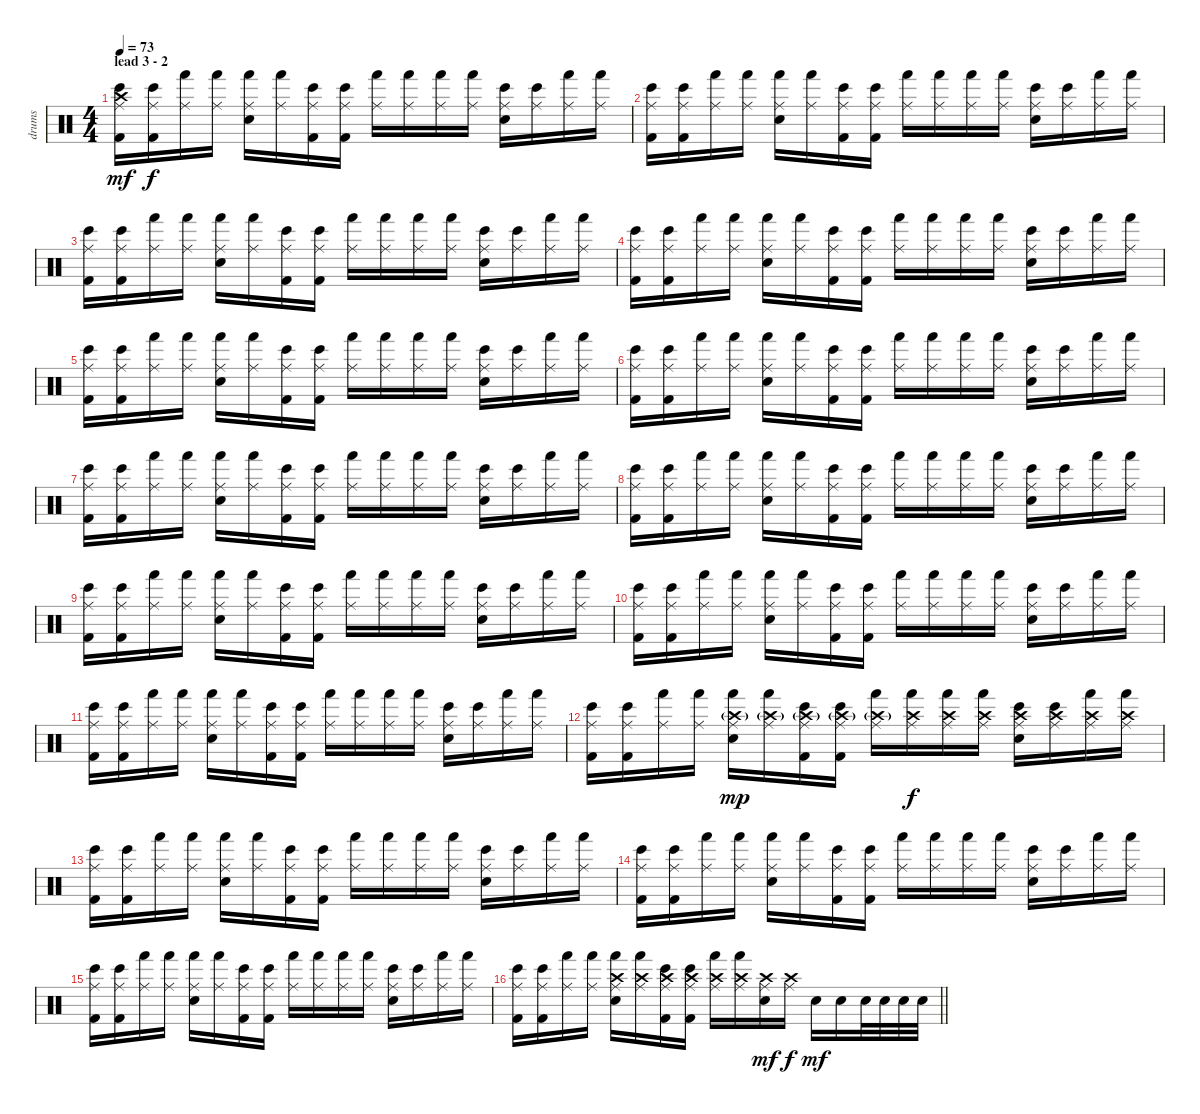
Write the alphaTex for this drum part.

\track ("drums" "drums") {instrument percussion}
\staff {score}
\articulation defaults
\ts (4 4)
\section ("" "lead 3 - 2")
\tempo 73
\clef neutral
\ks c
("Kick (hit) 2" "Bongo High (hit)" "Ride (middle)" "Crash high (hit)").16{dy mf} ("Kick (hit) 2" "Bongo High (hit)" "Ride (middle)").16{dy f} ("Hand (hit)" "Ride (middle)").16 ("Hand (hit)" "Ride (middle)").16 ("Electric Snare (hit)" "Hand (hit)" "Ride (middle)").16 ("Hand (hit)" "Ride (middle)").16 ("Kick (hit) 2" "Bongo High (hit)" "Ride (middle)").16 ("Kick (hit) 2" "Bongo High (hit)" "Ride (middle)").16 ("Hand (hit)" "Ride (middle)").16 ("Hand (hit)" "Ride (middle)").16 ("Hand (hit)" "Ride (middle)").16 ("Hand (hit)" "Ride (middle)").16 ("Electric Snare (hit)" "Bongo High (hit)" "Ride (middle)").16 ("Bongo High (hit)" "Ride (middle)").16 ("Hand (hit)" "Ride (middle)").16 ("Hand (hit)" "Ride (middle)").16 |
("Kick (hit) 2" "Bongo High (hit)" "Ride (middle)").16 ("Kick (hit) 2" "Bongo High (hit)" "Ride (middle)").16 ("Hand (hit)" "Ride (middle)").16 ("Hand (hit)" "Ride (middle)").16 ("Electric Snare (hit)" "Hand (hit)" "Ride (middle)").16 ("Hand (hit)" "Ride (middle)").16 ("Kick (hit) 2" "Bongo High (hit)" "Ride (middle)").16 ("Kick (hit) 2" "Bongo High (hit)" "Ride (middle)").16 ("Hand (hit)" "Ride (middle)").16 ("Hand (hit)" "Ride (middle)").16 ("Hand (hit)" "Ride (middle)").16 ("Hand (hit)" "Ride (middle)").16 ("Electric Snare (hit)" "Bongo High (hit)" "Ride (middle)").16 ("Bongo High (hit)" "Ride (middle)").16 ("Hand (hit)" "Ride (middle)").16 ("Hand (hit)" "Ride (middle)").16 |
("Kick (hit) 2" "Bongo High (hit)" "Ride (middle)").16 ("Kick (hit) 2" "Bongo High (hit)" "Ride (middle)").16 ("Hand (hit)" "Ride (middle)").16 ("Hand (hit)" "Ride (middle)").16 ("Electric Snare (hit)" "Hand (hit)" "Ride (middle)").16 ("Hand (hit)" "Ride (middle)").16 ("Kick (hit) 2" "Bongo High (hit)" "Ride (middle)").16 ("Kick (hit) 2" "Bongo High (hit)" "Ride (middle)").16 ("Hand (hit)" "Ride (middle)").16 ("Hand (hit)" "Ride (middle)").16 ("Hand (hit)" "Ride (middle)").16 ("Hand (hit)" "Ride (middle)").16 ("Electric Snare (hit)" "Bongo High (hit)" "Ride (middle)").16 ("Bongo High (hit)" "Ride (middle)").16 ("Hand (hit)" "Ride (middle)").16 ("Hand (hit)" "Ride (middle)").16 |
("Kick (hit) 2" "Bongo High (hit)" "Ride (middle)").16 ("Kick (hit) 2" "Bongo High (hit)" "Ride (middle)").16 ("Hand (hit)" "Ride (middle)").16 ("Hand (hit)" "Ride (middle)").16 ("Electric Snare (hit)" "Hand (hit)" "Ride (middle)").16 ("Hand (hit)" "Ride (middle)").16 ("Kick (hit) 2" "Bongo High (hit)" "Ride (middle)").16 ("Kick (hit) 2" "Bongo High (hit)" "Ride (middle)").16 ("Hand (hit)" "Ride (middle)").16 ("Hand (hit)" "Ride (middle)").16 ("Hand (hit)" "Ride (middle)").16 ("Hand (hit)" "Ride (middle)").16 ("Electric Snare (hit)" "Bongo High (hit)" "Ride (middle)").16 ("Bongo High (hit)" "Ride (middle)").16 ("Hand (hit)" "Ride (middle)").16 ("Hand (hit)" "Ride (middle)").16 |
("Kick (hit) 2" "Bongo High (hit)" "Ride (middle)").16 ("Kick (hit) 2" "Bongo High (hit)" "Ride (middle)").16 ("Hand (hit)" "Ride (middle)").16 ("Hand (hit)" "Ride (middle)").16 ("Electric Snare (hit)" "Hand (hit)" "Ride (middle)").16 ("Hand (hit)" "Ride (middle)").16 ("Kick (hit) 2" "Bongo High (hit)" "Ride (middle)").16 ("Kick (hit) 2" "Bongo High (hit)" "Ride (middle)").16 ("Hand (hit)" "Ride (middle)").16 ("Hand (hit)" "Ride (middle)").16 ("Hand (hit)" "Ride (middle)").16 ("Hand (hit)" "Ride (middle)").16 ("Electric Snare (hit)" "Bongo High (hit)" "Ride (middle)").16 ("Bongo High (hit)" "Ride (middle)").16 ("Hand (hit)" "Ride (middle)").16 ("Hand (hit)" "Ride (middle)").16 |
("Kick (hit) 2" "Bongo High (hit)" "Ride (middle)").16 ("Kick (hit) 2" "Bongo High (hit)" "Ride (middle)").16 ("Hand (hit)" "Ride (middle)").16 ("Hand (hit)" "Ride (middle)").16 ("Electric Snare (hit)" "Hand (hit)" "Ride (middle)").16 ("Hand (hit)" "Ride (middle)").16 ("Kick (hit) 2" "Bongo High (hit)" "Ride (middle)").16 ("Kick (hit) 2" "Bongo High (hit)" "Ride (middle)").16 ("Hand (hit)" "Ride (middle)").16 ("Hand (hit)" "Ride (middle)").16 ("Hand (hit)" "Ride (middle)").16 ("Hand (hit)" "Ride (middle)").16 ("Electric Snare (hit)" "Bongo High (hit)" "Ride (middle)").16 ("Bongo High (hit)" "Ride (middle)").16 ("Hand (hit)" "Ride (middle)").16 ("Hand (hit)" "Ride (middle)").16 |
("Kick (hit) 2" "Bongo High (hit)" "Ride (middle)").16 ("Kick (hit) 2" "Bongo High (hit)" "Ride (middle)").16 ("Hand (hit)" "Ride (middle)").16 ("Hand (hit)" "Ride (middle)").16 ("Electric Snare (hit)" "Hand (hit)" "Ride (middle)").16 ("Hand (hit)" "Ride (middle)").16 ("Kick (hit) 2" "Bongo High (hit)" "Ride (middle)").16 ("Kick (hit) 2" "Bongo High (hit)" "Ride (middle)").16 ("Hand (hit)" "Ride (middle)").16 ("Hand (hit)" "Ride (middle)").16 ("Hand (hit)" "Ride (middle)").16 ("Hand (hit)" "Ride (middle)").16 ("Electric Snare (hit)" "Bongo High (hit)" "Ride (middle)").16 ("Bongo High (hit)" "Ride (middle)").16 ("Hand (hit)" "Ride (middle)").16 ("Hand (hit)" "Ride (middle)").16 |
("Kick (hit) 2" "Bongo High (hit)" "Ride (middle)").16 ("Kick (hit) 2" "Bongo High (hit)" "Ride (middle)").16 ("Hand (hit)" "Ride (middle)").16 ("Hand (hit)" "Ride (middle)").16 ("Electric Snare (hit)" "Hand (hit)" "Ride (middle)").16 ("Hand (hit)" "Ride (middle)").16 ("Kick (hit) 2" "Bongo High (hit)" "Ride (middle)").16 ("Kick (hit) 2" "Bongo High (hit)" "Ride (middle)").16 ("Hand (hit)" "Ride (middle)").16 ("Hand (hit)" "Ride (middle)").16 ("Hand (hit)" "Ride (middle)").16 ("Hand (hit)" "Ride (middle)").16 ("Electric Snare (hit)" "Bongo High (hit)" "Ride (middle)").16 ("Bongo High (hit)" "Ride (middle)").16 ("Hand (hit)" "Ride (middle)").16 ("Hand (hit)" "Ride (middle)").16 |
("Kick (hit) 2" "Bongo High (hit)" "Ride (middle)").16 ("Kick (hit) 2" "Bongo High (hit)" "Ride (middle)").16 ("Hand (hit)" "Ride (middle)").16 ("Hand (hit)" "Ride (middle)").16 ("Electric Snare (hit)" "Hand (hit)" "Ride (middle)").16 ("Hand (hit)" "Ride (middle)").16 ("Kick (hit) 2" "Bongo High (hit)" "Ride (middle)").16 ("Kick (hit) 2" "Bongo High (hit)" "Ride (middle)").16 ("Hand (hit)" "Ride (middle)").16 ("Hand (hit)" "Ride (middle)").16 ("Hand (hit)" "Ride (middle)").16 ("Hand (hit)" "Ride (middle)").16 ("Electric Snare (hit)" "Bongo High (hit)" "Ride (middle)").16 ("Bongo High (hit)" "Ride (middle)").16 ("Hand (hit)" "Ride (middle)").16 ("Hand (hit)" "Ride (middle)").16 |
("Kick (hit) 2" "Bongo High (hit)" "Ride (middle)").16 ("Kick (hit) 2" "Bongo High (hit)" "Ride (middle)").16 ("Hand (hit)" "Ride (middle)").16 ("Hand (hit)" "Ride (middle)").16 ("Electric Snare (hit)" "Hand (hit)" "Ride (middle)").16 ("Hand (hit)" "Ride (middle)").16 ("Kick (hit) 2" "Bongo High (hit)" "Ride (middle)").16 ("Kick (hit) 2" "Bongo High (hit)" "Ride (middle)").16 ("Hand (hit)" "Ride (middle)").16 ("Hand (hit)" "Ride (middle)").16 ("Hand (hit)" "Ride (middle)").16 ("Hand (hit)" "Ride (middle)").16 ("Electric Snare (hit)" "Bongo High (hit)" "Ride (middle)").16 ("Bongo High (hit)" "Ride (middle)").16 ("Hand (hit)" "Ride (middle)").16 ("Hand (hit)" "Ride (middle)").16 |
("Kick (hit) 2" "Bongo High (hit)" "Ride (middle)").16 ("Kick (hit) 2" "Bongo High (hit)" "Ride (middle)").16 ("Hand (hit)" "Ride (middle)").16 ("Hand (hit)" "Ride (middle)").16 ("Electric Snare (hit)" "Hand (hit)" "Ride (middle)").16 ("Hand (hit)" "Ride (middle)").16 ("Kick (hit) 2" "Bongo High (hit)" "Ride (middle)").16 ("Kick (hit) 2" "Bongo High (hit)" "Ride (middle)").16 ("Hand (hit)" "Ride (middle)").16 ("Hand (hit)" "Ride (middle)").16 ("Hand (hit)" "Ride (middle)").16 ("Hand (hit)" "Ride (middle)").16 ("Electric Snare (hit)" "Bongo High (hit)" "Ride (middle)").16 ("Bongo High (hit)" "Ride (middle)").16 ("Hand (hit)" "Ride (middle)").16 ("Hand (hit)" "Ride (middle)").16 |
("Kick (hit) 2" "Bongo High (hit)" "Ride (middle)").16 ("Kick (hit) 2" "Bongo High (hit)" "Ride (middle)").16 ("Hand (hit)" "Ride (middle)").16 ("Hand (hit)" "Ride (middle)").16 ("Electric Snare (hit)" "Hand (hit)" "Ride (middle)" "Crash high (hit)"{g}).16{dy mp} ("Hand (hit)" "Ride (middle)" "Crash high (hit)"{g}).16 ("Kick (hit) 2" "Bongo High (hit)" "Ride (middle)" "Crash high (hit)"{g}).16 ("Kick (hit) 2" "Bongo High (hit)" "Ride (middle)" "Crash high (hit)"{g}).16 ("Hand (hit)" "Ride (middle)" "Crash high (hit)"{g}).16 ("Hand (hit)" "Ride (middle)" "Crash high (hit)").16{dy f} ("Hand (hit)" "Ride (middle)" "Crash high (hit)").16 ("Hand (hit)" "Ride (middle)" "Crash high (hit)").16 ("Electric Snare (hit)" "Bongo High (hit)" "Ride (middle)" "Crash high (hit)").16 ("Bongo High (hit)" "Ride (middle)" "Crash high (hit)").16 ("Hand (hit)" "Ride (middle)" "Crash high (hit)").16 ("Hand (hit)" "Ride (middle)" "Crash high (hit)").16 |
("Kick (hit) 2" "Bongo High (hit)" "Ride (middle)").16 ("Kick (hit) 2" "Bongo High (hit)" "Ride (middle)").16 ("Hand (hit)" "Ride (middle)").16 ("Hand (hit)" "Ride (middle)").16 ("Electric Snare (hit)" "Hand (hit)" "Ride (middle)").16 ("Hand (hit)" "Ride (middle)").16 ("Kick (hit) 2" "Bongo High (hit)" "Ride (middle)").16 ("Kick (hit) 2" "Bongo High (hit)" "Ride (middle)").16 ("Hand (hit)" "Ride (middle)").16 ("Hand (hit)" "Ride (middle)").16 ("Hand (hit)" "Ride (middle)").16 ("Hand (hit)" "Ride (middle)").16 ("Electric Snare (hit)" "Bongo High (hit)" "Ride (middle)").16 ("Bongo High (hit)" "Ride (middle)").16 ("Hand (hit)" "Ride (middle)").16 ("Hand (hit)" "Ride (middle)").16 |
("Kick (hit) 2" "Bongo High (hit)" "Ride (middle)").16 ("Kick (hit) 2" "Bongo High (hit)" "Ride (middle)").16 ("Hand (hit)" "Ride (middle)").16 ("Hand (hit)" "Ride (middle)").16 ("Electric Snare (hit)" "Hand (hit)" "Ride (middle)").16 ("Hand (hit)" "Ride (middle)").16 ("Kick (hit) 2" "Bongo High (hit)" "Ride (middle)").16 ("Kick (hit) 2" "Bongo High (hit)" "Ride (middle)").16 ("Hand (hit)" "Ride (middle)").16 ("Hand (hit)" "Ride (middle)").16 ("Hand (hit)" "Ride (middle)").16 ("Hand (hit)" "Ride (middle)").16 ("Electric Snare (hit)" "Bongo High (hit)" "Ride (middle)").16 ("Bongo High (hit)" "Ride (middle)").16 ("Hand (hit)" "Ride (middle)").16 ("Hand (hit)" "Ride (middle)").16 |
("Kick (hit) 2" "Bongo High (hit)" "Ride (middle)").16 ("Kick (hit) 2" "Bongo High (hit)" "Ride (middle)").16 ("Hand (hit)" "Ride (middle)").16 ("Hand (hit)" "Ride (middle)").16 ("Electric Snare (hit)" "Hand (hit)" "Ride (middle)").16 ("Hand (hit)" "Ride (middle)").16 ("Kick (hit) 2" "Bongo High (hit)" "Ride (middle)").16 ("Kick (hit) 2" "Bongo High (hit)" "Ride (middle)").16 ("Hand (hit)" "Ride (middle)").16 ("Hand (hit)" "Ride (middle)").16 ("Hand (hit)" "Ride (middle)").16 ("Hand (hit)" "Ride (middle)").16 ("Electric Snare (hit)" "Bongo High (hit)" "Ride (middle)").16 ("Bongo High (hit)" "Ride (middle)").16 ("Hand (hit)" "Ride (middle)").16 ("Hand (hit)" "Ride (middle)").16 |
\barLineRight lightlight
("Kick (hit) 2" "Bongo High (hit)" "Ride (middle)").16 ("Kick (hit) 2" "Bongo High (hit)" "Ride (middle)").16 ("Hand (hit)" "Ride (middle)").16 ("Hand (hit)" "Ride (middle)").16 ("Electric Snare (hit)" "Hand (hit)" "Ride (middle)" "Crash high (hit)").16 ("Hand (hit)" "Ride (middle)" "Crash high (hit)").16 ("Kick (hit) 2" "Bongo High (hit)" "Ride (middle)" "Crash high (hit)").16 ("Kick (hit) 2" "Bongo High (hit)" "Ride (middle)" "Crash high (hit)").16 ("Hand (hit)" "Ride (middle)" "Crash high (hit)").16 ("Hand (hit)" "Ride (middle)" "Crash high (hit)").16 ("Electric Snare (hit)" "Ride (middle)" "Crash high (hit)").16{dy mf} ("Ride (middle)" "Crash high (hit)").16{dy f} "Electric Snare (hit)".16{dy mf} "Electric Snare (hit)".16 "Electric Snare (hit)".32 "Electric Snare (hit)".32 "Electric Snare (hit)".32 "Electric Snare (hit)".32
